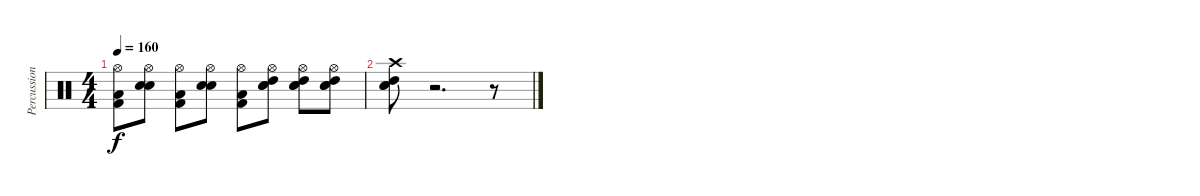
\track ("Percussions" "Percussion") {instrument percussion}
\staff {score}
\articulation defaults
\ts (4 4)
\tempo 160
\clef neutral
\ks c
("Hi-Hat (open)" "Kick (hit) 2" "Low Floor Tom (hit)").8{dy f} ("Hi-Hat (open)" "Snare (hit) 2" "Electric Snare (hit)").8 ("Hi-Hat (open)" "Kick (hit) 2" "Low Floor Tom (hit)").8 ("Hi-Hat (open)" "Snare (hit) 2" "Electric Snare (hit)").8 ("Hi-Hat (open)" "Kick (hit) 2" "Low Floor Tom (hit)").8 ("Hi-Hat (open)" "Snare (hit) 2" "Electric Snare (hit)" "High Tom (hit)").8 ("Hi-Hat (open)" "Snare (hit) 2" "Electric Snare (hit)" "High Tom (hit)").8 ("Hi-Hat (open)" "Snare (hit) 2" "Electric Snare (hit)" "High Tom (hit)").8 |
("Crash high (hit)" "Snare (hit) 2" "Electric Snare (hit)" "High Tom (hit)").8 r.2{d} r.8
